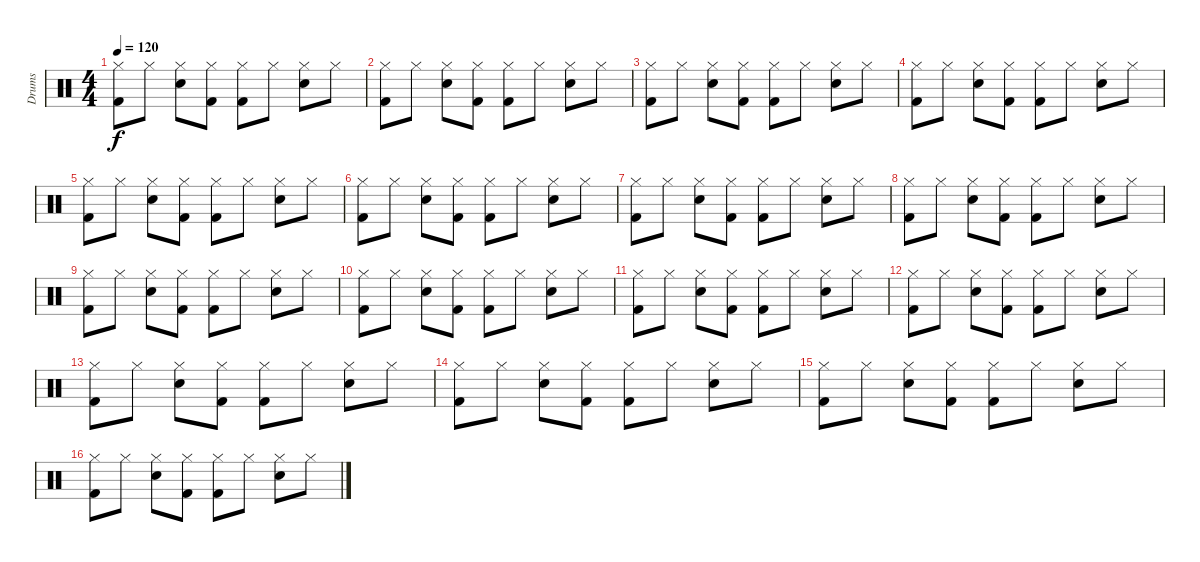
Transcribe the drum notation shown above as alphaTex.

\track ("Drums" "Drums") {instrument percussion}
\staff {score}
\articulation defaults
\ts (4 4)
\tempo 120
\clef neutral
\ks c
("Hi-Hat (closed)" "Kick (hit) 2").8{dy f} "Hi-Hat (closed)".8 ("Hi-Hat (closed)" "Snare (hit) 2").8 ("Hi-Hat (closed)" "Kick (hit) 2").8 ("Hi-Hat (closed)" "Kick (hit) 2").8 "Hi-Hat (closed)".8 ("Hi-Hat (closed)" "Snare (hit) 2").8 "Hi-Hat (closed)".8 |
("Hi-Hat (closed)" "Kick (hit) 2").8 "Hi-Hat (closed)".8 ("Hi-Hat (closed)" "Snare (hit) 2").8 ("Hi-Hat (closed)" "Kick (hit) 2").8 ("Hi-Hat (closed)" "Kick (hit) 2").8 "Hi-Hat (closed)".8 ("Hi-Hat (closed)" "Snare (hit) 2").8 "Hi-Hat (closed)".8 |
("Hi-Hat (closed)" "Kick (hit) 2").8 "Hi-Hat (closed)".8 ("Hi-Hat (closed)" "Snare (hit) 2").8 ("Hi-Hat (closed)" "Kick (hit) 2").8 ("Hi-Hat (closed)" "Kick (hit) 2").8 "Hi-Hat (closed)".8 ("Hi-Hat (closed)" "Snare (hit) 2").8 "Hi-Hat (closed)".8 |
("Hi-Hat (closed)" "Kick (hit) 2").8 "Hi-Hat (closed)".8 ("Hi-Hat (closed)" "Snare (hit) 2").8 ("Hi-Hat (closed)" "Kick (hit) 2").8 ("Hi-Hat (closed)" "Kick (hit) 2").8 "Hi-Hat (closed)".8 ("Hi-Hat (closed)" "Snare (hit) 2").8 "Hi-Hat (closed)".8 |
("Hi-Hat (closed)" "Kick (hit) 2").8 "Hi-Hat (closed)".8 ("Hi-Hat (closed)" "Snare (hit) 2").8 ("Hi-Hat (closed)" "Kick (hit) 2").8 ("Hi-Hat (closed)" "Kick (hit) 2").8 "Hi-Hat (closed)".8 ("Hi-Hat (closed)" "Snare (hit) 2").8 "Hi-Hat (closed)".8 |
("Hi-Hat (closed)" "Kick (hit) 2").8 "Hi-Hat (closed)".8 ("Hi-Hat (closed)" "Snare (hit) 2").8 ("Hi-Hat (closed)" "Kick (hit) 2").8 ("Hi-Hat (closed)" "Kick (hit) 2").8 "Hi-Hat (closed)".8 ("Hi-Hat (closed)" "Snare (hit) 2").8 "Hi-Hat (closed)".8 |
("Hi-Hat (closed)" "Kick (hit) 2").8 "Hi-Hat (closed)".8 ("Hi-Hat (closed)" "Snare (hit) 2").8 ("Hi-Hat (closed)" "Kick (hit) 2").8 ("Hi-Hat (closed)" "Kick (hit) 2").8 "Hi-Hat (closed)".8 ("Hi-Hat (closed)" "Snare (hit) 2").8 "Hi-Hat (closed)".8 |
("Hi-Hat (closed)" "Kick (hit) 2").8 "Hi-Hat (closed)".8 ("Hi-Hat (closed)" "Snare (hit) 2").8 ("Hi-Hat (closed)" "Kick (hit) 2").8 ("Hi-Hat (closed)" "Kick (hit) 2").8 "Hi-Hat (closed)".8 ("Hi-Hat (closed)" "Snare (hit) 2").8 "Hi-Hat (closed)".8 |
("Hi-Hat (closed)" "Kick (hit) 2").8 "Hi-Hat (closed)".8 ("Hi-Hat (closed)" "Snare (hit) 2").8 ("Hi-Hat (closed)" "Kick (hit) 2").8 ("Hi-Hat (closed)" "Kick (hit) 2").8 "Hi-Hat (closed)".8 ("Hi-Hat (closed)" "Snare (hit) 2").8 "Hi-Hat (closed)".8 |
("Hi-Hat (closed)" "Kick (hit) 2").8 "Hi-Hat (closed)".8 ("Hi-Hat (closed)" "Snare (hit) 2").8 ("Hi-Hat (closed)" "Kick (hit) 2").8 ("Hi-Hat (closed)" "Kick (hit) 2").8 "Hi-Hat (closed)".8 ("Hi-Hat (closed)" "Snare (hit) 2").8 "Hi-Hat (closed)".8 |
("Hi-Hat (closed)" "Kick (hit) 2").8 "Hi-Hat (closed)".8 ("Hi-Hat (closed)" "Snare (hit) 2").8 ("Hi-Hat (closed)" "Kick (hit) 2").8 ("Hi-Hat (closed)" "Kick (hit) 2").8 "Hi-Hat (closed)".8 ("Hi-Hat (closed)" "Snare (hit) 2").8 "Hi-Hat (closed)".8 |
("Hi-Hat (closed)" "Kick (hit) 2").8 "Hi-Hat (closed)".8 ("Hi-Hat (closed)" "Snare (hit) 2").8 ("Hi-Hat (closed)" "Kick (hit) 2").8 ("Hi-Hat (closed)" "Kick (hit) 2").8 "Hi-Hat (closed)".8 ("Hi-Hat (closed)" "Snare (hit) 2").8 "Hi-Hat (closed)".8 |
("Hi-Hat (closed)" "Kick (hit) 2").8 "Hi-Hat (closed)".8 ("Hi-Hat (closed)" "Snare (hit) 2").8 ("Hi-Hat (closed)" "Kick (hit) 2").8 ("Hi-Hat (closed)" "Kick (hit) 2").8 "Hi-Hat (closed)".8 ("Hi-Hat (closed)" "Snare (hit) 2").8 "Hi-Hat (closed)".8 |
("Hi-Hat (closed)" "Kick (hit) 2").8 "Hi-Hat (closed)".8 ("Hi-Hat (closed)" "Snare (hit) 2").8 ("Hi-Hat (closed)" "Kick (hit) 2").8 ("Hi-Hat (closed)" "Kick (hit) 2").8 "Hi-Hat (closed)".8 ("Hi-Hat (closed)" "Snare (hit) 2").8 "Hi-Hat (closed)".8 |
("Hi-Hat (closed)" "Kick (hit) 2").8 "Hi-Hat (closed)".8 ("Hi-Hat (closed)" "Snare (hit) 2").8 ("Hi-Hat (closed)" "Kick (hit) 2").8 ("Hi-Hat (closed)" "Kick (hit) 2").8 "Hi-Hat (closed)".8 ("Hi-Hat (closed)" "Snare (hit) 2").8 "Hi-Hat (closed)".8 |
("Hi-Hat (closed)" "Kick (hit) 2").8 "Hi-Hat (closed)".8 ("Hi-Hat (closed)" "Snare (hit) 2").8 ("Hi-Hat (closed)" "Kick (hit) 2").8 ("Hi-Hat (closed)" "Kick (hit) 2").8 "Hi-Hat (closed)".8 ("Hi-Hat (closed)" "Snare (hit) 2").8 "Hi-Hat (closed)".8
